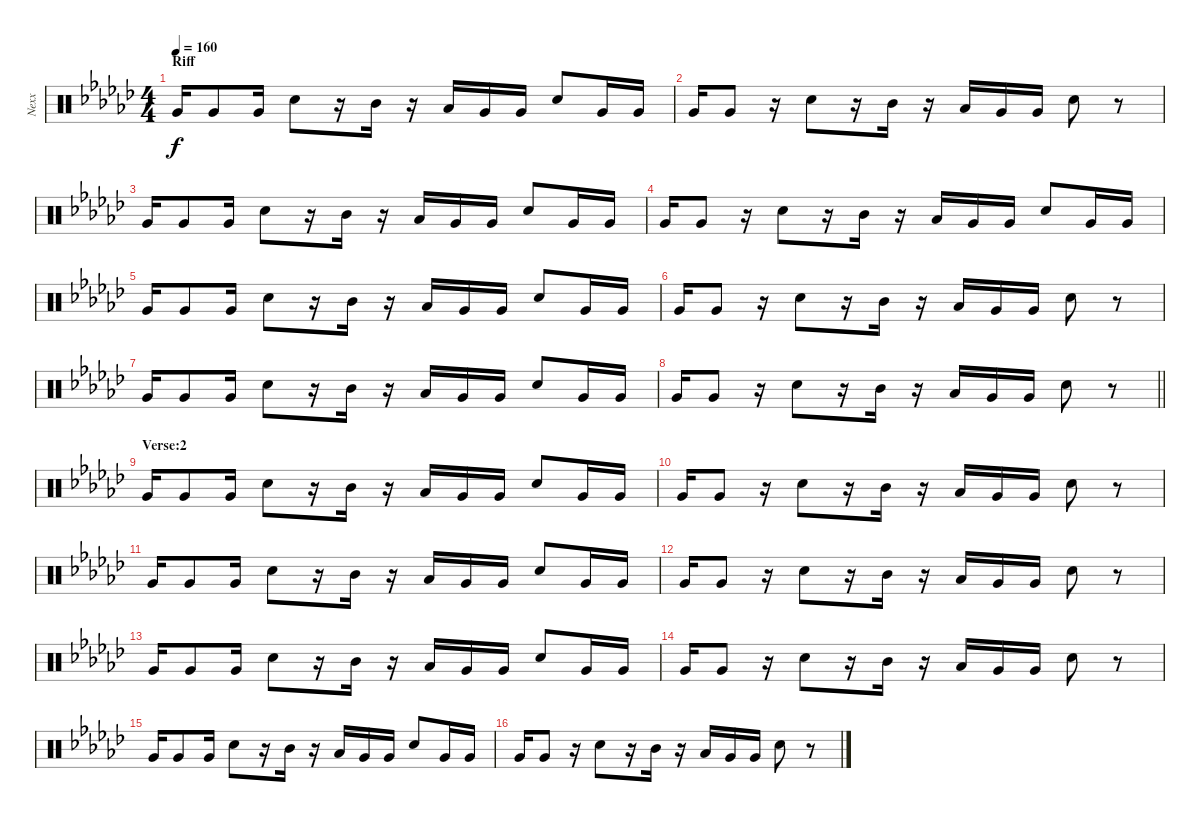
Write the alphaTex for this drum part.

\track ("Nexx" "Nexx") {instrument percussion}
\staff {score}
\articulation defaults
\ts (4 4)
\section ("" "Riff")
\tempo 160
\clef neutral
\ks ebminor "Very Low Tom (hit)".16{dy f} "Very Low Tom (hit)".8 "Very Low Tom (hit)".16 "Snare (hit) 2".8
r.16 "Mid Tom (hit)".16 r.16 "Low Tom (hit)".16 "Very Low Tom (hit)".16 "Very Low Tom (hit)".16 "Snare (hit) 2".8 "Very Low Tom (hit)".16 "Very Low Tom (hit)".16 |
"Very Low Tom (hit)".16 "Very Low Tom (hit)".8 r.16 "Snare (hit) 2".8 r.16 "Mid Tom (hit)".16 r.16 "Low Tom (hit)".16 "Very Low Tom (hit)".16 "Very Low Tom (hit)".16 "Snare (hit) 2".8 r.8 |
"Very Low Tom (hit)".16 "Very Low Tom (hit)".8 "Very Low Tom (hit)".16 "Snare (hit) 2".8 r.16 "Mid Tom (hit)".16 r.16 "Low Tom (hit)".16 "Very Low Tom (hit)".16 "Very Low Tom (hit)".16 "Snare (hit) 2".8 "Very Low Tom (hit)".16 "Very Low Tom (hit)".16 |
"Very Low Tom (hit)".16 "Very Low Tom (hit)".8 r.16 "Snare (hit) 2".8 r.16 "Mid Tom (hit)".16 r.16 "Low Tom (hit)".16 "Very Low Tom (hit)".16 "Very Low Tom (hit)".16 "Snare (hit) 2".8 "Very Low Tom (hit)".16 "Very Low Tom (hit)".16 |
"Very Low Tom (hit)".16 "Very Low Tom (hit)".8 "Very Low Tom (hit)".16 "Snare (hit) 2".8 r.16 "Mid Tom (hit)".16 r.16 "Low Tom (hit)".16 "Very Low Tom (hit)".16 "Very Low Tom (hit)".16 "Snare (hit) 2".8 "Very Low Tom (hit)".16 "Very Low Tom (hit)".16 |
"Very Low Tom (hit)".16 "Very Low Tom (hit)".8 r.16 "Snare (hit) 2".8 r.16 "Mid Tom (hit)".16 r.16 "Low Tom (hit)".16 "Very Low Tom (hit)".16 "Very Low Tom (hit)".16 "Snare (hit) 2".8 r.8 |
"Very Low Tom (hit)".16 "Very Low Tom (hit)".8 "Very Low Tom (hit)".16 "Snare (hit) 2".8 r.16 "Mid Tom (hit)".16 r.16 "Low Tom (hit)".16 "Very Low Tom (hit)".16 "Very Low Tom (hit)".16 "Snare (hit) 2".8 "Very Low Tom (hit)".16 "Very Low Tom (hit)".16 |
\barLineRight lightlight "Very Low Tom (hit)".16 "Very Low Tom (hit)".8
r.16 "Snare (hit) 2".8 r.16 "Mid Tom (hit)".16 r.16 "Low Tom (hit)".16 "Very Low Tom (hit)".16 "Very Low Tom (hit)".16 "Snare (hit) 2".8 r.8 |
\section ("" "Verse:2")
"Very Low Tom (hit)".16 "Very Low Tom (hit)".8 "Very Low Tom (hit)".16 "Snare (hit) 2".8 r.16 "Mid Tom (hit)".16 r.16 "Low Tom (hit)".16 "Very Low Tom (hit)".16 "Very Low Tom (hit)".16 "Snare (hit) 2".8 "Very Low Tom (hit)".16 "Very Low Tom (hit)".16 |
"Very Low Tom (hit)".16 "Very Low Tom (hit)".8 r.16 "Snare (hit) 2".8 r.16 "Mid Tom (hit)".16 r.16 "Low Tom (hit)".16 "Very Low Tom (hit)".16 "Very Low Tom (hit)".16 "Snare (hit) 2".8 r.8 |
"Very Low Tom (hit)".16 "Very Low Tom (hit)".8 "Very Low Tom (hit)".16 "Snare (hit) 2".8 r.16 "Mid Tom (hit)".16 r.16 "Low Tom (hit)".16 "Very Low Tom (hit)".16 "Very Low Tom (hit)".16 "Snare (hit) 2".8 "Very Low Tom (hit)".16 "Very Low Tom (hit)".16 |
"Very Low Tom (hit)".16 "Very Low Tom (hit)".8 r.16 "Snare (hit) 2".8 r.16 "Mid Tom (hit)".16 r.16 "Low Tom (hit)".16 "Very Low Tom (hit)".16 "Very Low Tom (hit)".16 "Snare (hit) 2".8 r.8 |
"Very Low Tom (hit)".16 "Very Low Tom (hit)".8 "Very Low Tom (hit)".16 "Snare (hit) 2".8 r.16 "Mid Tom (hit)".16 r.16 "Low Tom (hit)".16 "Very Low Tom (hit)".16 "Very Low Tom (hit)".16 "Snare (hit) 2".8 "Very Low Tom (hit)".16 "Very Low Tom (hit)".16 |
"Very Low Tom (hit)".16 "Very Low Tom (hit)".8 r.16 "Snare (hit) 2".8 r.16 "Mid Tom (hit)".16 r.16 "Low Tom (hit)".16 "Very Low Tom (hit)".16 "Very Low Tom (hit)".16 "Snare (hit) 2".8 r.8 |
"Very Low Tom (hit)".16 "Very Low Tom (hit)".8 "Very Low Tom (hit)".16 "Snare (hit) 2".8 r.16 "Mid Tom (hit)".16 r.16 "Low Tom (hit)".16 "Very Low Tom (hit)".16 "Very Low Tom (hit)".16 "Snare (hit) 2".8 "Very Low Tom (hit)".16 "Very Low Tom (hit)".16 |
"Very Low Tom (hit)".16 "Very Low Tom (hit)".8 r.16 "Snare (hit) 2".8 r.16 "Mid Tom (hit)".16 r.16 "Low Tom (hit)".16 "Very Low Tom (hit)".16 "Very Low Tom (hit)".16 "Snare (hit) 2".8 r.8
